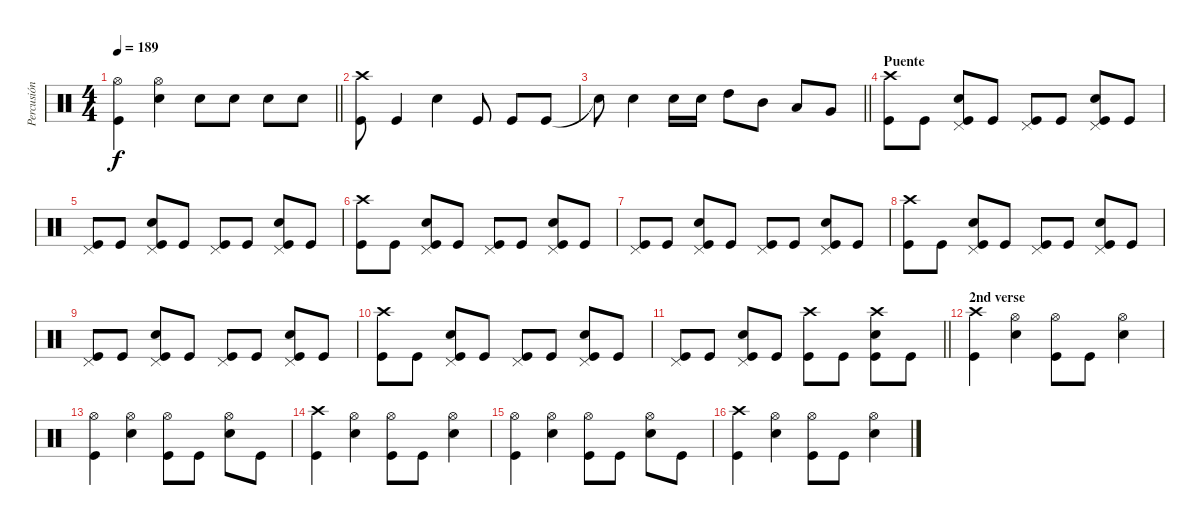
\track ("Percusión" "Percusión") {instrument percussion}
\staff {score}
\articulation defaults
\ts (4 4)
\tempo 189
\clef neutral
\barLineRight lightlight
\ks c
("Hi-Hat (open)" "Kick (hit)").4{dy f} ("Hi-Hat (open)" "Electric Snare (hit)").4 "Electric Snare (hit)".8 "Electric Snare (hit)".8 "Electric Snare (hit)".8 "Electric Snare (hit)".8 |
("Crash high (hit)" "Kick (hit)").8 "Kick (hit)".4 "Electric Snare (hit)".4 "Kick (hit)".8 "Kick (hit)".8 "Kick (hit)".8 |
\barLineRight lightlight "Snare (hit)"{t}.8 "Electric Snare (hit)".4 "Electric Snare (hit)".16 "Electric Snare (hit)".16 "High Tom (hit)".8 "Mid Tom (hit)".8 "Low Tom (hit)".8 "Very Low Tom (hit)".8
|
\section ("" "Puente")
("Crash high (hit)" "Kick (hit)").8 "Kick (hit)".8 ("Pedal Hi-Hat (hit)" "Electric Snare (hit)" "Kick (hit)").8 "Kick (hit)".8 ("Pedal Hi-Hat (hit)" "Kick (hit)").8 "Kick (hit)".8 ("Pedal Hi-Hat (hit)" "Electric Snare (hit)" "Kick (hit)").8 "Kick (hit)".8 |
("Pedal Hi-Hat (hit)" "Kick (hit)").8 "Kick (hit)".8 ("Pedal Hi-Hat (hit)" "Electric Snare (hit)" "Kick (hit)").8 "Kick (hit)".8 ("Pedal Hi-Hat (hit)" "Kick (hit)").8 "Kick (hit)".8 ("Pedal Hi-Hat (hit)" "Electric Snare (hit)" "Kick (hit)").8 "Kick (hit)".8 |
("Crash high (hit)" "Kick (hit)").8 "Kick (hit)".8 ("Pedal Hi-Hat (hit)" "Electric Snare (hit)" "Kick (hit)").8 "Kick (hit)".8 ("Pedal Hi-Hat (hit)" "Kick (hit)").8 "Kick (hit)".8 ("Pedal Hi-Hat (hit)" "Electric Snare (hit)" "Kick (hit)").8 "Kick (hit)".8 |
("Pedal Hi-Hat (hit)" "Kick (hit)").8 "Kick (hit)".8 ("Pedal Hi-Hat (hit)" "Electric Snare (hit)" "Kick (hit)").8 "Kick (hit)".8 ("Pedal Hi-Hat (hit)" "Kick (hit)").8 "Kick (hit)".8 ("Pedal Hi-Hat (hit)" "Electric Snare (hit)" "Kick (hit)").8 "Kick (hit)".8 |
("Crash high (hit)" "Kick (hit)").8 "Kick (hit)".8 ("Pedal Hi-Hat (hit)" "Electric Snare (hit)" "Kick (hit)").8 "Kick (hit)".8 ("Pedal Hi-Hat (hit)" "Kick (hit)").8 "Kick (hit)".8 ("Pedal Hi-Hat (hit)" "Electric Snare (hit)" "Kick (hit)").8 "Kick (hit)".8 |
("Pedal Hi-Hat (hit)" "Kick (hit)").8 "Kick (hit)".8 ("Pedal Hi-Hat (hit)" "Electric Snare (hit)" "Kick (hit)").8 "Kick (hit)".8 ("Pedal Hi-Hat (hit)" "Kick (hit)").8 "Kick (hit)".8 ("Pedal Hi-Hat (hit)" "Electric Snare (hit)" "Kick (hit)").8 "Kick (hit)".8 |
("Crash high (hit)" "Kick (hit)").8 "Kick (hit)".8 ("Pedal Hi-Hat (hit)" "Electric Snare (hit)" "Kick (hit)").8 "Kick (hit)".8 ("Pedal Hi-Hat (hit)" "Kick (hit)").8 "Kick (hit)".8 ("Pedal Hi-Hat (hit)" "Electric Snare (hit)" "Kick (hit)").8 "Kick (hit)".8 |
\barLineRight lightlight
("Pedal Hi-Hat (hit)" "Kick (hit)").8 "Kick (hit)".8 ("Pedal Hi-Hat (hit)" "Electric Snare (hit)" "Kick (hit)").8 "Kick (hit)".8 ("Crash high (hit)" "Kick (hit)").8 "Kick (hit)".8 ("Crash high (hit)" "Electric Snare (hit)" "Kick (hit)").8 "Kick (hit)".8 |
\section ("" "2nd verse")
("Crash high (hit)" "Kick (hit)").4 ("Hi-Hat (open)" "Electric Snare (hit)").4 ("Hi-Hat (open)" "Kick (hit)").8 "Kick (hit)".8 ("Hi-Hat (open)" "Electric Snare (hit)").4 |
("Hi-Hat (open)" "Kick (hit)").4 ("Hi-Hat (open)" "Electric Snare (hit)").4 ("Hi-Hat (open)" "Kick (hit)").8 "Kick (hit)".8 ("Hi-Hat (open)" "Electric Snare (hit)").8 "Kick (hit)".8 |
("Crash high (hit)" "Kick (hit)").4 ("Hi-Hat (open)" "Electric Snare (hit)").4 ("Hi-Hat (open)" "Kick (hit)").8 "Kick (hit)".8 ("Hi-Hat (open)" "Electric Snare (hit)").4 |
("Hi-Hat (open)" "Kick (hit)").4 ("Hi-Hat (open)" "Electric Snare (hit)").4 ("Hi-Hat (open)" "Kick (hit)").8 "Kick (hit)".8 ("Hi-Hat (open)" "Electric Snare (hit)").8 "Kick (hit)".8 |
("Crash high (hit)" "Kick (hit)").4 ("Hi-Hat (open)" "Electric Snare (hit)").4 ("Hi-Hat (open)" "Kick (hit)").8 "Kick (hit)".8 ("Hi-Hat (open)" "Electric Snare (hit)").4
